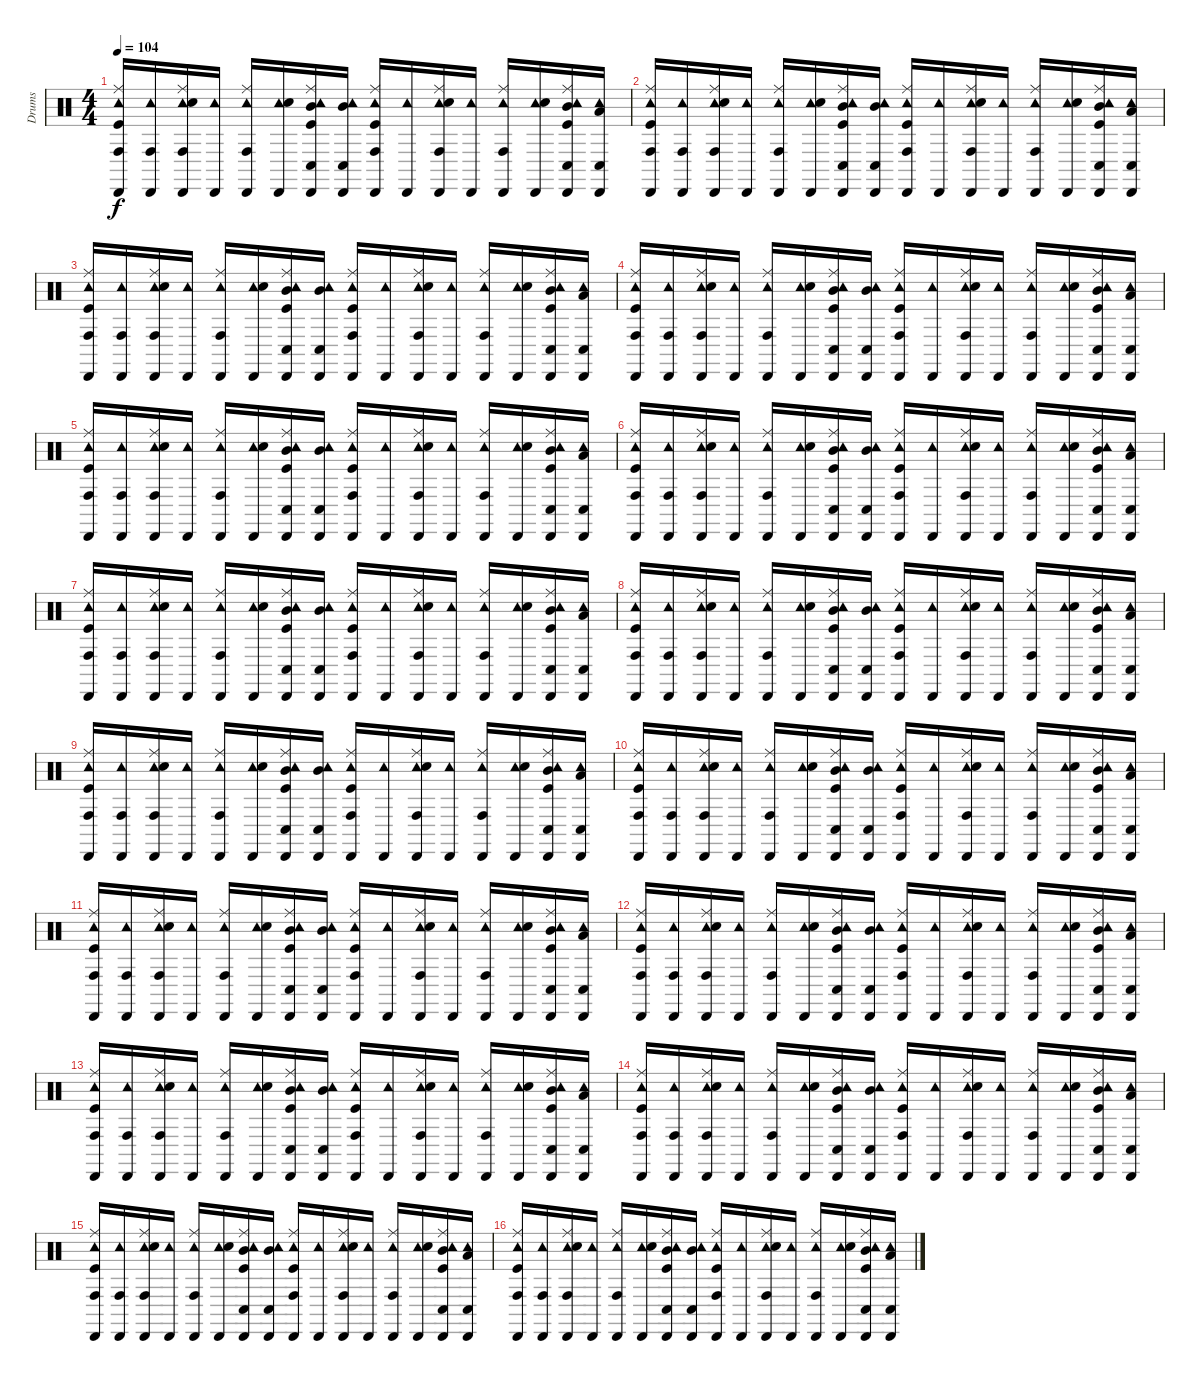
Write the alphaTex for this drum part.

\track ("Drums" "Drums") {instrument percussion}
\staff {score}
\articulation defaults
\ts (4 4)
\tempo 104
\clef neutral
\ks c
("Cabasa (hit)" "Conga high (hit)" "Tambourine (hit)" "Ride (middle)" "Kick (hit)").16{dy f} ("Cabasa (hit)" "Conga high (hit)" "Tambourine (hit)").16 ("Cabasa (hit)" "Conga high (hit)" "Tambourine (hit)" "Ride (middle)" "Electric Snare (hit)").16 ("Cabasa (hit)" "Tambourine (hit)").16 ("Cabasa (hit)" "Conga high (hit)" "Tambourine (hit)" "Ride (middle)").16 ("Cabasa (hit)" "Tambourine (hit)" "Electric Snare (hit)").16 ("Cabasa (hit)" "Conga low (hit)" "Tambourine (hit)" "Ride (middle)" "Mid Tom (hit)" "Kick (hit)").16 ("Cabasa (hit)" "Conga low (hit)" "Tambourine (hit)" "Mid Tom (hit)").16 ("Cabasa (hit)" "Conga high (hit)" "Tambourine (hit)" "Ride (middle)" "Kick (hit)").16 ("Cabasa (hit)" "Tambourine (hit)").16 ("Cabasa (hit)" "Conga high (hit)" "Tambourine (hit)" "Ride (middle)" "Electric Snare (hit)").16 ("Cabasa (hit)" "Tambourine (hit)").16 ("Cabasa (hit)" "Conga high (hit)" "Tambourine (hit)" "Ride (middle)").16 ("Cabasa (hit)" "Tambourine (hit)" "Electric Snare (hit)").16 ("Cabasa (hit)" "Conga low (hit)" "Tambourine (hit)" "Ride (middle)" "Mid Tom (hit)" "Kick (hit)").16 ("Cabasa (hit)" "Conga low (hit)" "Tambourine (hit)" "Low Tom (hit)").16 |
("Cabasa (hit)" "Conga high (hit)" "Tambourine (hit)" "Ride (middle)" "Kick (hit)").16 ("Cabasa (hit)" "Conga high (hit)" "Tambourine (hit)").16 ("Cabasa (hit)" "Conga high (hit)" "Tambourine (hit)" "Ride (middle)" "Electric Snare (hit)").16 ("Cabasa (hit)" "Tambourine (hit)").16 ("Cabasa (hit)" "Conga high (hit)" "Tambourine (hit)" "Ride (middle)").16 ("Cabasa (hit)" "Tambourine (hit)" "Electric Snare (hit)").16 ("Cabasa (hit)" "Conga low (hit)" "Tambourine (hit)" "Ride (middle)" "Mid Tom (hit)" "Kick (hit)").16 ("Cabasa (hit)" "Conga low (hit)" "Tambourine (hit)" "Mid Tom (hit)").16 ("Cabasa (hit)" "Conga high (hit)" "Tambourine (hit)" "Ride (middle)" "Kick (hit)").16 ("Cabasa (hit)" "Tambourine (hit)").16 ("Cabasa (hit)" "Conga high (hit)" "Tambourine (hit)" "Ride (middle)" "Electric Snare (hit)").16 ("Cabasa (hit)" "Tambourine (hit)").16 ("Cabasa (hit)" "Conga high (hit)" "Tambourine (hit)" "Ride (middle)").16 ("Cabasa (hit)" "Tambourine (hit)" "Electric Snare (hit)").16 ("Cabasa (hit)" "Conga low (hit)" "Tambourine (hit)" "Ride (middle)" "Mid Tom (hit)" "Kick (hit)").16 ("Cabasa (hit)" "Conga low (hit)" "Tambourine (hit)" "Low Tom (hit)").16 |
("Cabasa (hit)" "Conga high (hit)" "Tambourine (hit)" "Ride (middle)" "Kick (hit)").16 ("Cabasa (hit)" "Conga high (hit)" "Tambourine (hit)").16 ("Cabasa (hit)" "Conga high (hit)" "Tambourine (hit)" "Ride (middle)" "Electric Snare (hit)").16 ("Cabasa (hit)" "Tambourine (hit)").16 ("Cabasa (hit)" "Conga high (hit)" "Tambourine (hit)" "Ride (middle)").16 ("Cabasa (hit)" "Tambourine (hit)" "Electric Snare (hit)").16 ("Cabasa (hit)" "Conga low (hit)" "Tambourine (hit)" "Ride (middle)" "Mid Tom (hit)" "Kick (hit)").16 ("Cabasa (hit)" "Conga low (hit)" "Tambourine (hit)" "Mid Tom (hit)").16 ("Cabasa (hit)" "Conga high (hit)" "Tambourine (hit)" "Ride (middle)" "Kick (hit)").16 ("Cabasa (hit)" "Tambourine (hit)").16 ("Cabasa (hit)" "Conga high (hit)" "Tambourine (hit)" "Ride (middle)" "Electric Snare (hit)").16 ("Cabasa (hit)" "Tambourine (hit)").16 ("Cabasa (hit)" "Conga high (hit)" "Tambourine (hit)" "Ride (middle)").16 ("Cabasa (hit)" "Tambourine (hit)" "Electric Snare (hit)").16 ("Cabasa (hit)" "Conga low (hit)" "Tambourine (hit)" "Ride (middle)" "Mid Tom (hit)" "Kick (hit)").16 ("Cabasa (hit)" "Conga low (hit)" "Tambourine (hit)" "Low Tom (hit)").16 |
("Cabasa (hit)" "Conga high (hit)" "Tambourine (hit)" "Ride (middle)" "Kick (hit)").16 ("Cabasa (hit)" "Conga high (hit)" "Tambourine (hit)").16 ("Cabasa (hit)" "Conga high (hit)" "Tambourine (hit)" "Ride (middle)" "Electric Snare (hit)").16 ("Cabasa (hit)" "Tambourine (hit)").16 ("Cabasa (hit)" "Conga high (hit)" "Tambourine (hit)" "Ride (middle)").16 ("Cabasa (hit)" "Tambourine (hit)" "Electric Snare (hit)").16 ("Cabasa (hit)" "Conga low (hit)" "Tambourine (hit)" "Ride (middle)" "Mid Tom (hit)" "Kick (hit)").16 ("Cabasa (hit)" "Conga low (hit)" "Tambourine (hit)" "Mid Tom (hit)").16 ("Cabasa (hit)" "Conga high (hit)" "Tambourine (hit)" "Ride (middle)" "Kick (hit)").16 ("Cabasa (hit)" "Tambourine (hit)").16 ("Cabasa (hit)" "Conga high (hit)" "Tambourine (hit)" "Ride (middle)" "Electric Snare (hit)").16 ("Cabasa (hit)" "Tambourine (hit)").16 ("Cabasa (hit)" "Conga high (hit)" "Tambourine (hit)" "Ride (middle)").16 ("Cabasa (hit)" "Tambourine (hit)" "Electric Snare (hit)").16 ("Cabasa (hit)" "Conga low (hit)" "Tambourine (hit)" "Ride (middle)" "Mid Tom (hit)" "Kick (hit)").16 ("Cabasa (hit)" "Conga low (hit)" "Tambourine (hit)" "Low Tom (hit)").16 |
("Cabasa (hit)" "Conga high (hit)" "Tambourine (hit)" "Ride (middle)" "Kick (hit)").16 ("Cabasa (hit)" "Conga high (hit)" "Tambourine (hit)").16 ("Cabasa (hit)" "Conga high (hit)" "Tambourine (hit)" "Ride (middle)" "Electric Snare (hit)").16 ("Cabasa (hit)" "Tambourine (hit)").16 ("Cabasa (hit)" "Conga high (hit)" "Tambourine (hit)" "Ride (middle)").16 ("Cabasa (hit)" "Tambourine (hit)" "Electric Snare (hit)").16 ("Cabasa (hit)" "Conga low (hit)" "Tambourine (hit)" "Ride (middle)" "Mid Tom (hit)" "Kick (hit)").16 ("Cabasa (hit)" "Conga low (hit)" "Tambourine (hit)" "Mid Tom (hit)").16 ("Cabasa (hit)" "Conga high (hit)" "Tambourine (hit)" "Ride (middle)" "Kick (hit)").16 ("Cabasa (hit)" "Tambourine (hit)").16 ("Cabasa (hit)" "Conga high (hit)" "Tambourine (hit)" "Ride (middle)" "Electric Snare (hit)").16 ("Cabasa (hit)" "Tambourine (hit)").16 ("Cabasa (hit)" "Conga high (hit)" "Tambourine (hit)" "Ride (middle)").16 ("Cabasa (hit)" "Tambourine (hit)" "Electric Snare (hit)").16 ("Cabasa (hit)" "Conga low (hit)" "Tambourine (hit)" "Ride (middle)" "Mid Tom (hit)" "Kick (hit)").16 ("Cabasa (hit)" "Conga low (hit)" "Tambourine (hit)" "Low Tom (hit)").16 |
("Cabasa (hit)" "Conga high (hit)" "Tambourine (hit)" "Ride (middle)" "Kick (hit)").16 ("Cabasa (hit)" "Conga high (hit)" "Tambourine (hit)").16 ("Cabasa (hit)" "Conga high (hit)" "Tambourine (hit)" "Ride (middle)" "Electric Snare (hit)").16 ("Cabasa (hit)" "Tambourine (hit)").16 ("Cabasa (hit)" "Conga high (hit)" "Tambourine (hit)" "Ride (middle)").16 ("Cabasa (hit)" "Tambourine (hit)" "Electric Snare (hit)").16 ("Cabasa (hit)" "Conga low (hit)" "Tambourine (hit)" "Ride (middle)" "Mid Tom (hit)" "Kick (hit)").16 ("Cabasa (hit)" "Conga low (hit)" "Tambourine (hit)" "Mid Tom (hit)").16 ("Cabasa (hit)" "Conga high (hit)" "Tambourine (hit)" "Ride (middle)" "Kick (hit)").16 ("Cabasa (hit)" "Tambourine (hit)").16 ("Cabasa (hit)" "Conga high (hit)" "Tambourine (hit)" "Ride (middle)" "Electric Snare (hit)").16 ("Cabasa (hit)" "Tambourine (hit)").16 ("Cabasa (hit)" "Conga high (hit)" "Tambourine (hit)" "Ride (middle)").16 ("Cabasa (hit)" "Tambourine (hit)" "Electric Snare (hit)").16 ("Cabasa (hit)" "Conga low (hit)" "Tambourine (hit)" "Ride (middle)" "Mid Tom (hit)" "Kick (hit)").16 ("Cabasa (hit)" "Conga low (hit)" "Tambourine (hit)" "Low Tom (hit)").16 |
("Cabasa (hit)" "Conga high (hit)" "Tambourine (hit)" "Ride (middle)" "Kick (hit)").16 ("Cabasa (hit)" "Conga high (hit)" "Tambourine (hit)").16 ("Cabasa (hit)" "Conga high (hit)" "Tambourine (hit)" "Ride (middle)" "Electric Snare (hit)").16 ("Cabasa (hit)" "Tambourine (hit)").16 ("Cabasa (hit)" "Conga high (hit)" "Tambourine (hit)" "Ride (middle)").16 ("Cabasa (hit)" "Tambourine (hit)" "Electric Snare (hit)").16 ("Cabasa (hit)" "Conga low (hit)" "Tambourine (hit)" "Ride (middle)" "Mid Tom (hit)" "Kick (hit)").16 ("Cabasa (hit)" "Conga low (hit)" "Tambourine (hit)" "Mid Tom (hit)").16 ("Cabasa (hit)" "Conga high (hit)" "Tambourine (hit)" "Ride (middle)" "Kick (hit)").16 ("Cabasa (hit)" "Tambourine (hit)").16 ("Cabasa (hit)" "Conga high (hit)" "Tambourine (hit)" "Ride (middle)" "Electric Snare (hit)").16 ("Cabasa (hit)" "Tambourine (hit)").16 ("Cabasa (hit)" "Conga high (hit)" "Tambourine (hit)" "Ride (middle)").16 ("Cabasa (hit)" "Tambourine (hit)" "Electric Snare (hit)").16 ("Cabasa (hit)" "Conga low (hit)" "Tambourine (hit)" "Ride (middle)" "Mid Tom (hit)" "Kick (hit)").16 ("Cabasa (hit)" "Conga low (hit)" "Tambourine (hit)" "Low Tom (hit)").16 |
("Cabasa (hit)" "Conga high (hit)" "Tambourine (hit)" "Ride (middle)" "Kick (hit)").16 ("Cabasa (hit)" "Conga high (hit)" "Tambourine (hit)").16 ("Cabasa (hit)" "Conga high (hit)" "Tambourine (hit)" "Ride (middle)" "Electric Snare (hit)").16 ("Cabasa (hit)" "Tambourine (hit)").16 ("Cabasa (hit)" "Conga high (hit)" "Tambourine (hit)" "Ride (middle)").16 ("Cabasa (hit)" "Tambourine (hit)" "Electric Snare (hit)").16 ("Cabasa (hit)" "Conga low (hit)" "Tambourine (hit)" "Ride (middle)" "Mid Tom (hit)" "Kick (hit)").16 ("Cabasa (hit)" "Conga low (hit)" "Tambourine (hit)" "Mid Tom (hit)").16 ("Cabasa (hit)" "Conga high (hit)" "Tambourine (hit)" "Ride (middle)" "Kick (hit)").16 ("Cabasa (hit)" "Tambourine (hit)").16 ("Cabasa (hit)" "Conga high (hit)" "Tambourine (hit)" "Ride (middle)" "Electric Snare (hit)").16 ("Cabasa (hit)" "Tambourine (hit)").16 ("Cabasa (hit)" "Conga high (hit)" "Tambourine (hit)" "Ride (middle)").16 ("Cabasa (hit)" "Tambourine (hit)" "Electric Snare (hit)").16 ("Cabasa (hit)" "Conga low (hit)" "Tambourine (hit)" "Ride (middle)" "Mid Tom (hit)" "Kick (hit)").16 ("Cabasa (hit)" "Conga low (hit)" "Tambourine (hit)" "Low Tom (hit)").16 |
("Cabasa (hit)" "Conga high (hit)" "Tambourine (hit)" "Ride (middle)" "Kick (hit)").16 ("Cabasa (hit)" "Conga high (hit)" "Tambourine (hit)").16 ("Cabasa (hit)" "Conga high (hit)" "Tambourine (hit)" "Ride (middle)" "Electric Snare (hit)").16 ("Cabasa (hit)" "Tambourine (hit)").16 ("Cabasa (hit)" "Conga high (hit)" "Tambourine (hit)" "Ride (middle)").16 ("Cabasa (hit)" "Tambourine (hit)" "Electric Snare (hit)").16 ("Cabasa (hit)" "Conga low (hit)" "Tambourine (hit)" "Ride (middle)" "Mid Tom (hit)" "Kick (hit)").16 ("Cabasa (hit)" "Conga low (hit)" "Tambourine (hit)" "Mid Tom (hit)").16 ("Cabasa (hit)" "Conga high (hit)" "Tambourine (hit)" "Ride (middle)" "Kick (hit)").16 ("Cabasa (hit)" "Tambourine (hit)").16 ("Cabasa (hit)" "Conga high (hit)" "Tambourine (hit)" "Ride (middle)" "Electric Snare (hit)").16 ("Cabasa (hit)" "Tambourine (hit)").16 ("Cabasa (hit)" "Conga high (hit)" "Tambourine (hit)" "Ride (middle)").16 ("Cabasa (hit)" "Tambourine (hit)" "Electric Snare (hit)").16 ("Cabasa (hit)" "Conga low (hit)" "Tambourine (hit)" "Ride (middle)" "Mid Tom (hit)" "Kick (hit)").16 ("Cabasa (hit)" "Conga low (hit)" "Tambourine (hit)" "Low Tom (hit)").16 |
("Cabasa (hit)" "Conga high (hit)" "Tambourine (hit)" "Ride (middle)" "Kick (hit)").16 ("Cabasa (hit)" "Conga high (hit)" "Tambourine (hit)").16 ("Cabasa (hit)" "Conga high (hit)" "Tambourine (hit)" "Ride (middle)" "Electric Snare (hit)").16 ("Cabasa (hit)" "Tambourine (hit)").16 ("Cabasa (hit)" "Conga high (hit)" "Tambourine (hit)" "Ride (middle)").16 ("Cabasa (hit)" "Tambourine (hit)" "Electric Snare (hit)").16 ("Cabasa (hit)" "Conga low (hit)" "Tambourine (hit)" "Ride (middle)" "Mid Tom (hit)" "Kick (hit)").16 ("Cabasa (hit)" "Conga low (hit)" "Tambourine (hit)" "Mid Tom (hit)").16 ("Cabasa (hit)" "Conga high (hit)" "Tambourine (hit)" "Ride (middle)" "Kick (hit)").16 ("Cabasa (hit)" "Tambourine (hit)").16 ("Cabasa (hit)" "Conga high (hit)" "Tambourine (hit)" "Ride (middle)" "Electric Snare (hit)").16 ("Cabasa (hit)" "Tambourine (hit)").16 ("Cabasa (hit)" "Conga high (hit)" "Tambourine (hit)" "Ride (middle)").16 ("Cabasa (hit)" "Tambourine (hit)" "Electric Snare (hit)").16 ("Cabasa (hit)" "Conga low (hit)" "Tambourine (hit)" "Ride (middle)" "Mid Tom (hit)" "Kick (hit)").16 ("Cabasa (hit)" "Conga low (hit)" "Tambourine (hit)" "Low Tom (hit)").16 |
("Cabasa (hit)" "Conga high (hit)" "Tambourine (hit)" "Ride (middle)" "Kick (hit)").16 ("Cabasa (hit)" "Conga high (hit)" "Tambourine (hit)").16 ("Cabasa (hit)" "Conga high (hit)" "Tambourine (hit)" "Ride (middle)" "Electric Snare (hit)").16 ("Cabasa (hit)" "Tambourine (hit)").16 ("Cabasa (hit)" "Conga high (hit)" "Tambourine (hit)" "Ride (middle)").16 ("Cabasa (hit)" "Tambourine (hit)" "Electric Snare (hit)").16 ("Cabasa (hit)" "Conga low (hit)" "Tambourine (hit)" "Ride (middle)" "Mid Tom (hit)" "Kick (hit)").16 ("Cabasa (hit)" "Conga low (hit)" "Tambourine (hit)" "Mid Tom (hit)").16 ("Cabasa (hit)" "Conga high (hit)" "Tambourine (hit)" "Ride (middle)" "Kick (hit)").16 ("Cabasa (hit)" "Tambourine (hit)").16 ("Cabasa (hit)" "Conga high (hit)" "Tambourine (hit)" "Ride (middle)" "Electric Snare (hit)").16 ("Cabasa (hit)" "Tambourine (hit)").16 ("Cabasa (hit)" "Conga high (hit)" "Tambourine (hit)" "Ride (middle)").16 ("Cabasa (hit)" "Tambourine (hit)" "Electric Snare (hit)").16 ("Cabasa (hit)" "Conga low (hit)" "Tambourine (hit)" "Ride (middle)" "Mid Tom (hit)" "Kick (hit)").16 ("Cabasa (hit)" "Conga low (hit)" "Tambourine (hit)" "Low Tom (hit)").16 |
("Cabasa (hit)" "Conga high (hit)" "Tambourine (hit)" "Ride (middle)" "Kick (hit)").16 ("Cabasa (hit)" "Conga high (hit)" "Tambourine (hit)").16 ("Cabasa (hit)" "Conga high (hit)" "Tambourine (hit)" "Ride (middle)" "Electric Snare (hit)").16 ("Cabasa (hit)" "Tambourine (hit)").16 ("Cabasa (hit)" "Conga high (hit)" "Tambourine (hit)" "Ride (middle)").16 ("Cabasa (hit)" "Tambourine (hit)" "Electric Snare (hit)").16 ("Cabasa (hit)" "Conga low (hit)" "Tambourine (hit)" "Ride (middle)" "Mid Tom (hit)" "Kick (hit)").16 ("Cabasa (hit)" "Conga low (hit)" "Tambourine (hit)" "Mid Tom (hit)").16 ("Cabasa (hit)" "Conga high (hit)" "Tambourine (hit)" "Ride (middle)" "Kick (hit)").16 ("Cabasa (hit)" "Tambourine (hit)").16 ("Cabasa (hit)" "Conga high (hit)" "Tambourine (hit)" "Ride (middle)" "Electric Snare (hit)").16 ("Cabasa (hit)" "Tambourine (hit)").16 ("Cabasa (hit)" "Conga high (hit)" "Tambourine (hit)" "Ride (middle)").16 ("Cabasa (hit)" "Tambourine (hit)" "Electric Snare (hit)").16 ("Cabasa (hit)" "Conga low (hit)" "Tambourine (hit)" "Ride (middle)" "Mid Tom (hit)" "Kick (hit)").16 ("Cabasa (hit)" "Conga low (hit)" "Tambourine (hit)" "Low Tom (hit)").16 |
("Cabasa (hit)" "Conga high (hit)" "Tambourine (hit)" "Ride (middle)" "Kick (hit)").16 ("Cabasa (hit)" "Conga high (hit)" "Tambourine (hit)").16 ("Cabasa (hit)" "Conga high (hit)" "Tambourine (hit)" "Ride (middle)" "Electric Snare (hit)").16 ("Cabasa (hit)" "Tambourine (hit)").16 ("Cabasa (hit)" "Conga high (hit)" "Tambourine (hit)" "Ride (middle)").16 ("Cabasa (hit)" "Tambourine (hit)" "Electric Snare (hit)").16 ("Cabasa (hit)" "Conga low (hit)" "Tambourine (hit)" "Ride (middle)" "Mid Tom (hit)" "Kick (hit)").16 ("Cabasa (hit)" "Conga low (hit)" "Tambourine (hit)" "Mid Tom (hit)").16 ("Cabasa (hit)" "Conga high (hit)" "Tambourine (hit)" "Ride (middle)" "Kick (hit)").16 ("Cabasa (hit)" "Tambourine (hit)").16 ("Cabasa (hit)" "Conga high (hit)" "Tambourine (hit)" "Ride (middle)" "Electric Snare (hit)").16 ("Cabasa (hit)" "Tambourine (hit)").16 ("Cabasa (hit)" "Conga high (hit)" "Tambourine (hit)" "Ride (middle)").16 ("Cabasa (hit)" "Tambourine (hit)" "Electric Snare (hit)").16 ("Cabasa (hit)" "Conga low (hit)" "Tambourine (hit)" "Ride (middle)" "Mid Tom (hit)" "Kick (hit)").16 ("Cabasa (hit)" "Conga low (hit)" "Tambourine (hit)" "Low Tom (hit)").16 |
("Cabasa (hit)" "Conga high (hit)" "Tambourine (hit)" "Ride (middle)" "Kick (hit)").16 ("Cabasa (hit)" "Conga high (hit)" "Tambourine (hit)").16 ("Cabasa (hit)" "Conga high (hit)" "Tambourine (hit)" "Ride (middle)" "Electric Snare (hit)").16 ("Cabasa (hit)" "Tambourine (hit)").16 ("Cabasa (hit)" "Conga high (hit)" "Tambourine (hit)" "Ride (middle)").16 ("Cabasa (hit)" "Tambourine (hit)" "Electric Snare (hit)").16 ("Cabasa (hit)" "Conga low (hit)" "Tambourine (hit)" "Ride (middle)" "Mid Tom (hit)" "Kick (hit)").16 ("Cabasa (hit)" "Conga low (hit)" "Tambourine (hit)" "Mid Tom (hit)").16 ("Cabasa (hit)" "Conga high (hit)" "Tambourine (hit)" "Ride (middle)" "Kick (hit)").16 ("Cabasa (hit)" "Tambourine (hit)").16 ("Cabasa (hit)" "Conga high (hit)" "Tambourine (hit)" "Ride (middle)" "Electric Snare (hit)").16 ("Cabasa (hit)" "Tambourine (hit)").16 ("Cabasa (hit)" "Conga high (hit)" "Tambourine (hit)" "Ride (middle)").16 ("Cabasa (hit)" "Tambourine (hit)" "Electric Snare (hit)").16 ("Cabasa (hit)" "Conga low (hit)" "Tambourine (hit)" "Ride (middle)" "Mid Tom (hit)" "Kick (hit)").16 ("Cabasa (hit)" "Conga low (hit)" "Tambourine (hit)" "Low Tom (hit)").16 |
("Cabasa (hit)" "Conga high (hit)" "Tambourine (hit)" "Ride (middle)" "Kick (hit)").16 ("Cabasa (hit)" "Conga high (hit)" "Tambourine (hit)").16 ("Cabasa (hit)" "Conga high (hit)" "Tambourine (hit)" "Ride (middle)" "Electric Snare (hit)").16 ("Cabasa (hit)" "Tambourine (hit)").16 ("Cabasa (hit)" "Conga high (hit)" "Tambourine (hit)" "Ride (middle)").16 ("Cabasa (hit)" "Tambourine (hit)" "Electric Snare (hit)").16 ("Cabasa (hit)" "Conga low (hit)" "Tambourine (hit)" "Ride (middle)" "Mid Tom (hit)" "Kick (hit)").16 ("Cabasa (hit)" "Conga low (hit)" "Tambourine (hit)" "Mid Tom (hit)").16 ("Cabasa (hit)" "Conga high (hit)" "Tambourine (hit)" "Ride (middle)" "Kick (hit)").16 ("Cabasa (hit)" "Tambourine (hit)").16 ("Cabasa (hit)" "Conga high (hit)" "Tambourine (hit)" "Ride (middle)" "Electric Snare (hit)").16 ("Cabasa (hit)" "Tambourine (hit)").16 ("Cabasa (hit)" "Conga high (hit)" "Tambourine (hit)" "Ride (middle)").16 ("Cabasa (hit)" "Tambourine (hit)" "Electric Snare (hit)").16 ("Cabasa (hit)" "Conga low (hit)" "Tambourine (hit)" "Ride (middle)" "Mid Tom (hit)" "Kick (hit)").16 ("Cabasa (hit)" "Conga low (hit)" "Tambourine (hit)" "Low Tom (hit)").16 |
("Cabasa (hit)" "Conga high (hit)" "Tambourine (hit)" "Ride (middle)" "Kick (hit)").16 ("Cabasa (hit)" "Conga high (hit)" "Tambourine (hit)").16 ("Cabasa (hit)" "Conga high (hit)" "Tambourine (hit)" "Ride (middle)" "Electric Snare (hit)").16 ("Cabasa (hit)" "Tambourine (hit)").16 ("Cabasa (hit)" "Conga high (hit)" "Tambourine (hit)" "Ride (middle)").16 ("Cabasa (hit)" "Tambourine (hit)" "Electric Snare (hit)").16 ("Cabasa (hit)" "Conga low (hit)" "Tambourine (hit)" "Ride (middle)" "Mid Tom (hit)" "Kick (hit)").16 ("Cabasa (hit)" "Conga low (hit)" "Tambourine (hit)" "Mid Tom (hit)").16 ("Cabasa (hit)" "Conga high (hit)" "Tambourine (hit)" "Ride (middle)" "Kick (hit)").16 ("Cabasa (hit)" "Tambourine (hit)").16 ("Cabasa (hit)" "Conga high (hit)" "Tambourine (hit)" "Ride (middle)" "Electric Snare (hit)").16 ("Cabasa (hit)" "Tambourine (hit)").16 ("Cabasa (hit)" "Conga high (hit)" "Tambourine (hit)" "Ride (middle)").16 ("Cabasa (hit)" "Tambourine (hit)" "Electric Snare (hit)").16 ("Cabasa (hit)" "Conga low (hit)" "Tambourine (hit)" "Ride (middle)" "Mid Tom (hit)" "Kick (hit)").16 ("Cabasa (hit)" "Conga low (hit)" "Tambourine (hit)" "Low Tom (hit)").16
